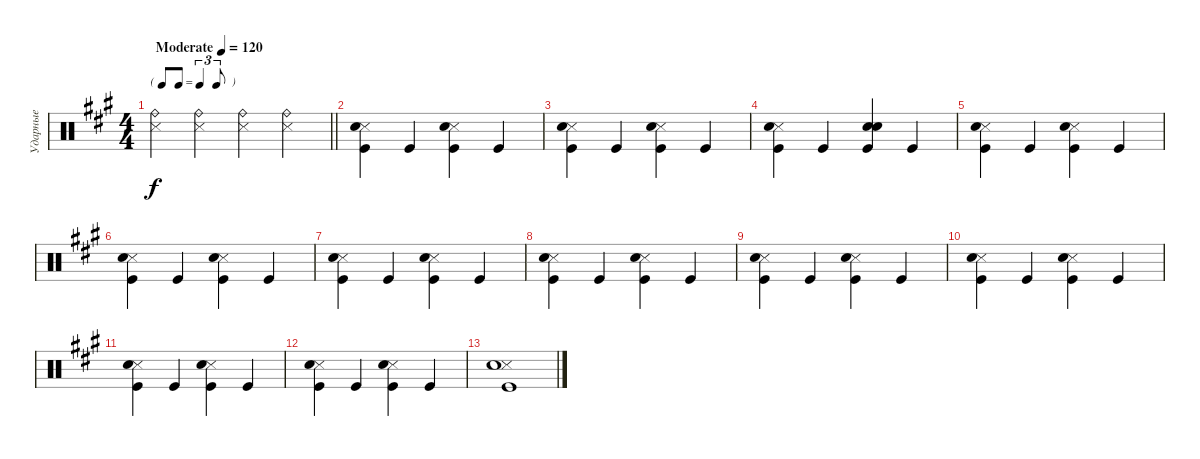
\track ("Ударные" "Ударные") {instrument percussion}
\staff {score}
\articulation defaults
\ts (4 4)
\tf triplet8th
\tempo (120 "Moderate")
\clef neutral
\barLineRight lightlight
\ks a
("Snare (side stick) 3" "Ride (bell)").4{dy f} ("Snare (side stick) 3" "Ride (bell)").4 ("Snare (side stick) 3" "Ride (bell)").4 ("Snare (side stick) 3" "Ride (bell)").4 |
("Kick (hit)" "Snare (side stick) 3" "Snare (hit) 2").4 "Kick (hit)".4 ("Kick (hit)" "Snare (side stick) 3" "Snare (hit) 2").4 "Kick (hit)".4 |
("Kick (hit)" "Snare (side stick) 3" "Snare (hit) 2").4 "Kick (hit)".4 ("Kick (hit)" "Snare (side stick) 3" "Snare (hit) 2").4 "Kick (hit)".4 |
("Kick (hit)" "Snare (side stick) 3" "Snare (hit) 2").4 "Kick (hit)".4 ("Kick (hit)" "Snare (hit) 2" "Snare (hit) 2").4 "Kick (hit)".4 |
("Kick (hit)" "Snare (side stick) 3" "Snare (hit) 2").4 "Kick (hit)".4 ("Kick (hit)" "Snare (side stick) 3" "Snare (hit) 2").4 "Kick (hit)".4 |
("Kick (hit)" "Snare (side stick) 3" "Snare (hit) 2").4 "Kick (hit)".4 ("Kick (hit)" "Snare (side stick) 3" "Snare (hit) 2").4 "Kick (hit)".4 |
("Kick (hit)" "Snare (side stick) 3" "Snare (hit) 2").4 "Kick (hit)".4 ("Kick (hit)" "Snare (side stick) 3" "Snare (hit) 2").4 "Kick (hit)".4 |
("Kick (hit)" "Snare (side stick) 3" "Snare (hit) 2").4 "Kick (hit)".4 ("Kick (hit)" "Snare (side stick) 3" "Snare (hit) 2").4 "Kick (hit)".4 |
("Kick (hit)" "Snare (side stick) 3" "Snare (hit) 2").4 "Kick (hit)".4 ("Kick (hit)" "Snare (side stick) 3" "Snare (hit) 2").4 "Kick (hit)".4 |
("Kick (hit)" "Snare (side stick) 3" "Snare (hit) 2").4 "Kick (hit)".4 ("Kick (hit)" "Snare (side stick) 3" "Snare (hit) 2").4 "Kick (hit)".4 |
("Kick (hit)" "Snare (side stick) 3" "Snare (hit) 2").4 "Kick (hit)".4 ("Kick (hit)" "Snare (side stick) 3" "Snare (hit) 2").4 "Kick (hit)".4 |
("Kick (hit)" "Snare (side stick) 3" "Snare (hit) 2").4 "Kick (hit)".4 ("Kick (hit)" "Snare (side stick) 3" "Snare (hit) 2").4 "Kick (hit)".4 |
("Kick (hit)" "Snare (side stick) 3" "Snare (hit) 2").1
